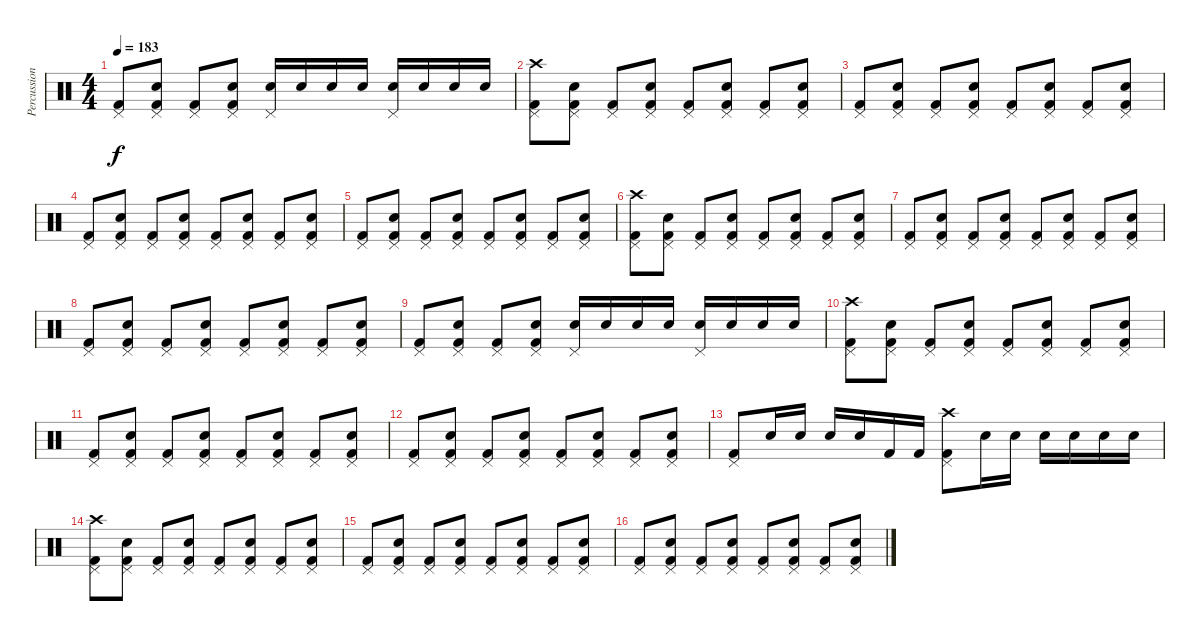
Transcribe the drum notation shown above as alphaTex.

\track ("Percussion" "Percussion") {instrument percussion}
\staff {score}
\articulation defaults
\ts (4 4)
\tempo 183
\clef neutral
\ks c
("Kick (hit) 2" "Pedal Hi-Hat (hit)").8{dy f} ("Kick (hit) 2" "Snare (hit) 2" "Pedal Hi-Hat (hit)").8 ("Kick (hit) 2" "Pedal Hi-Hat (hit)").8 ("Kick (hit) 2" "Snare (hit) 2" "Pedal Hi-Hat (hit)").8 ("Pedal Hi-Hat (hit)" "Snare (hit) 2").16 "Snare (hit) 2".16 "Snare (hit) 2".16 "Snare (hit) 2".16 ("Pedal Hi-Hat (hit)" "Snare (hit) 2").16 "Snare (hit) 2".16 "Snare (hit) 2".16 "Snare (hit) 2".16 |
("Kick (hit) 2" "Pedal Hi-Hat (hit)" "Crash high (hit)").8 ("Kick (hit) 2" "Snare (hit) 2" "Pedal Hi-Hat (hit)").8 ("Kick (hit) 2" "Pedal Hi-Hat (hit)").8 ("Kick (hit) 2" "Snare (hit) 2" "Pedal Hi-Hat (hit)").8 ("Kick (hit) 2" "Pedal Hi-Hat (hit)").8 ("Kick (hit) 2" "Snare (hit) 2" "Pedal Hi-Hat (hit)").8 ("Kick (hit) 2" "Pedal Hi-Hat (hit)").8 ("Kick (hit) 2" "Snare (hit) 2" "Pedal Hi-Hat (hit)").8 |
("Kick (hit) 2" "Pedal Hi-Hat (hit)").8 ("Kick (hit) 2" "Snare (hit) 2" "Pedal Hi-Hat (hit)").8 ("Kick (hit) 2" "Pedal Hi-Hat (hit)").8 ("Kick (hit) 2" "Snare (hit) 2" "Pedal Hi-Hat (hit)").8 ("Kick (hit) 2" "Pedal Hi-Hat (hit)").8 ("Kick (hit) 2" "Snare (hit) 2" "Pedal Hi-Hat (hit)").8 ("Kick (hit) 2" "Pedal Hi-Hat (hit)").8 ("Kick (hit) 2" "Snare (hit) 2" "Pedal Hi-Hat (hit)").8 |
("Kick (hit) 2" "Pedal Hi-Hat (hit)").8 ("Kick (hit) 2" "Snare (hit) 2" "Pedal Hi-Hat (hit)").8 ("Kick (hit) 2" "Pedal Hi-Hat (hit)").8 ("Kick (hit) 2" "Snare (hit) 2" "Pedal Hi-Hat (hit)").8 ("Kick (hit) 2" "Pedal Hi-Hat (hit)").8 ("Kick (hit) 2" "Snare (hit) 2" "Pedal Hi-Hat (hit)").8 ("Kick (hit) 2" "Pedal Hi-Hat (hit)").8 ("Kick (hit) 2" "Snare (hit) 2" "Pedal Hi-Hat (hit)").8 |
("Kick (hit) 2" "Pedal Hi-Hat (hit)").8 ("Kick (hit) 2" "Snare (hit) 2" "Pedal Hi-Hat (hit)").8 ("Kick (hit) 2" "Pedal Hi-Hat (hit)").8 ("Kick (hit) 2" "Snare (hit) 2" "Pedal Hi-Hat (hit)").8 ("Kick (hit) 2" "Pedal Hi-Hat (hit)").8 ("Kick (hit) 2" "Snare (hit) 2" "Pedal Hi-Hat (hit)").8 ("Kick (hit) 2" "Pedal Hi-Hat (hit)").8 ("Kick (hit) 2" "Snare (hit) 2" "Pedal Hi-Hat (hit)").8 |
("Kick (hit) 2" "Pedal Hi-Hat (hit)" "Crash high (hit)").8 ("Kick (hit) 2" "Snare (hit) 2" "Pedal Hi-Hat (hit)").8 ("Kick (hit) 2" "Pedal Hi-Hat (hit)").8 ("Kick (hit) 2" "Snare (hit) 2" "Pedal Hi-Hat (hit)").8 ("Kick (hit) 2" "Pedal Hi-Hat (hit)").8 ("Kick (hit) 2" "Snare (hit) 2" "Pedal Hi-Hat (hit)").8 ("Kick (hit) 2" "Pedal Hi-Hat (hit)").8 ("Kick (hit) 2" "Snare (hit) 2" "Pedal Hi-Hat (hit)").8 |
("Kick (hit) 2" "Pedal Hi-Hat (hit)").8 ("Kick (hit) 2" "Snare (hit) 2" "Pedal Hi-Hat (hit)").8 ("Kick (hit) 2" "Pedal Hi-Hat (hit)").8 ("Kick (hit) 2" "Snare (hit) 2" "Pedal Hi-Hat (hit)").8 ("Kick (hit) 2" "Pedal Hi-Hat (hit)").8 ("Kick (hit) 2" "Snare (hit) 2" "Pedal Hi-Hat (hit)").8 ("Kick (hit) 2" "Pedal Hi-Hat (hit)").8 ("Kick (hit) 2" "Snare (hit) 2" "Pedal Hi-Hat (hit)").8 |
("Kick (hit) 2" "Pedal Hi-Hat (hit)").8 ("Kick (hit) 2" "Snare (hit) 2" "Pedal Hi-Hat (hit)").8 ("Kick (hit) 2" "Pedal Hi-Hat (hit)").8 ("Kick (hit) 2" "Snare (hit) 2" "Pedal Hi-Hat (hit)").8 ("Kick (hit) 2" "Pedal Hi-Hat (hit)").8 ("Kick (hit) 2" "Snare (hit) 2" "Pedal Hi-Hat (hit)").8 ("Kick (hit) 2" "Pedal Hi-Hat (hit)").8 ("Kick (hit) 2" "Snare (hit) 2" "Pedal Hi-Hat (hit)").8 |
("Kick (hit) 2" "Pedal Hi-Hat (hit)").8 ("Kick (hit) 2" "Snare (hit) 2" "Pedal Hi-Hat (hit)").8 ("Kick (hit) 2" "Pedal Hi-Hat (hit)").8 ("Kick (hit) 2" "Snare (hit) 2" "Pedal Hi-Hat (hit)").8 ("Pedal Hi-Hat (hit)" "Snare (hit) 2").16 "Snare (hit) 2".16 "Snare (hit) 2".16 "Snare (hit) 2".16 ("Pedal Hi-Hat (hit)" "Snare (hit) 2").16 "Snare (hit) 2".16 "Snare (hit) 2".16 "Snare (hit) 2".16 |
("Kick (hit) 2" "Pedal Hi-Hat (hit)" "Crash high (hit)").8 ("Kick (hit) 2" "Snare (hit) 2" "Pedal Hi-Hat (hit)").8 ("Kick (hit) 2" "Pedal Hi-Hat (hit)").8 ("Kick (hit) 2" "Snare (hit) 2" "Pedal Hi-Hat (hit)").8 ("Kick (hit) 2" "Pedal Hi-Hat (hit)").8 ("Kick (hit) 2" "Snare (hit) 2" "Pedal Hi-Hat (hit)").8 ("Kick (hit) 2" "Pedal Hi-Hat (hit)").8 ("Kick (hit) 2" "Snare (hit) 2" "Pedal Hi-Hat (hit)").8 |
("Kick (hit) 2" "Pedal Hi-Hat (hit)").8 ("Kick (hit) 2" "Snare (hit) 2" "Pedal Hi-Hat (hit)").8 ("Kick (hit) 2" "Pedal Hi-Hat (hit)").8 ("Kick (hit) 2" "Snare (hit) 2" "Pedal Hi-Hat (hit)").8 ("Kick (hit) 2" "Pedal Hi-Hat (hit)").8 ("Kick (hit) 2" "Snare (hit) 2" "Pedal Hi-Hat (hit)").8 ("Kick (hit) 2" "Pedal Hi-Hat (hit)").8 ("Kick (hit) 2" "Snare (hit) 2" "Pedal Hi-Hat (hit)").8 |
("Kick (hit) 2" "Pedal Hi-Hat (hit)").8 ("Kick (hit) 2" "Snare (hit) 2" "Pedal Hi-Hat (hit)").8 ("Kick (hit) 2" "Pedal Hi-Hat (hit)").8 ("Kick (hit) 2" "Snare (hit) 2" "Pedal Hi-Hat (hit)").8 ("Kick (hit) 2" "Pedal Hi-Hat (hit)").8 ("Kick (hit) 2" "Snare (hit) 2" "Pedal Hi-Hat (hit)").8 ("Kick (hit) 2" "Pedal Hi-Hat (hit)").8 ("Kick (hit) 2" "Snare (hit) 2" "Pedal Hi-Hat (hit)").8 |
("Pedal Hi-Hat (hit)" "Kick (hit) 2").8 "Snare (hit) 2".16 "Snare (hit) 2".16 "Snare (hit) 2".16 "Snare (hit) 2".16 "Kick (hit) 2".16 "Kick (hit) 2".16 ("Pedal Hi-Hat (hit)" "Kick (hit) 2" "Crash high (hit)").8 "Snare (hit) 2".16 "Snare (hit) 2".16 "Snare (hit) 2".16 "Snare (hit) 2".16 "Snare (hit) 2".16 "Snare (hit) 2".16 |
("Kick (hit) 2" "Pedal Hi-Hat (hit)" "Crash high (hit)").8 ("Kick (hit) 2" "Snare (hit) 2" "Pedal Hi-Hat (hit)").8 ("Kick (hit) 2" "Pedal Hi-Hat (hit)").8 ("Kick (hit) 2" "Snare (hit) 2" "Pedal Hi-Hat (hit)").8 ("Kick (hit) 2" "Pedal Hi-Hat (hit)").8 ("Kick (hit) 2" "Snare (hit) 2" "Pedal Hi-Hat (hit)").8 ("Kick (hit) 2" "Pedal Hi-Hat (hit)").8 ("Kick (hit) 2" "Snare (hit) 2" "Pedal Hi-Hat (hit)").8 |
("Kick (hit) 2" "Pedal Hi-Hat (hit)").8 ("Kick (hit) 2" "Snare (hit) 2" "Pedal Hi-Hat (hit)").8 ("Kick (hit) 2" "Pedal Hi-Hat (hit)").8 ("Kick (hit) 2" "Snare (hit) 2" "Pedal Hi-Hat (hit)").8 ("Kick (hit) 2" "Pedal Hi-Hat (hit)").8 ("Kick (hit) 2" "Snare (hit) 2" "Pedal Hi-Hat (hit)").8 ("Kick (hit) 2" "Pedal Hi-Hat (hit)").8 ("Kick (hit) 2" "Snare (hit) 2" "Pedal Hi-Hat (hit)").8 |
("Kick (hit) 2" "Pedal Hi-Hat (hit)").8 ("Kick (hit) 2" "Snare (hit) 2" "Pedal Hi-Hat (hit)").8 ("Kick (hit) 2" "Pedal Hi-Hat (hit)").8 ("Kick (hit) 2" "Snare (hit) 2" "Pedal Hi-Hat (hit)").8 ("Kick (hit) 2" "Pedal Hi-Hat (hit)").8 ("Kick (hit) 2" "Snare (hit) 2" "Pedal Hi-Hat (hit)").8 ("Kick (hit) 2" "Pedal Hi-Hat (hit)").8 ("Kick (hit) 2" "Snare (hit) 2" "Pedal Hi-Hat (hit)").8
